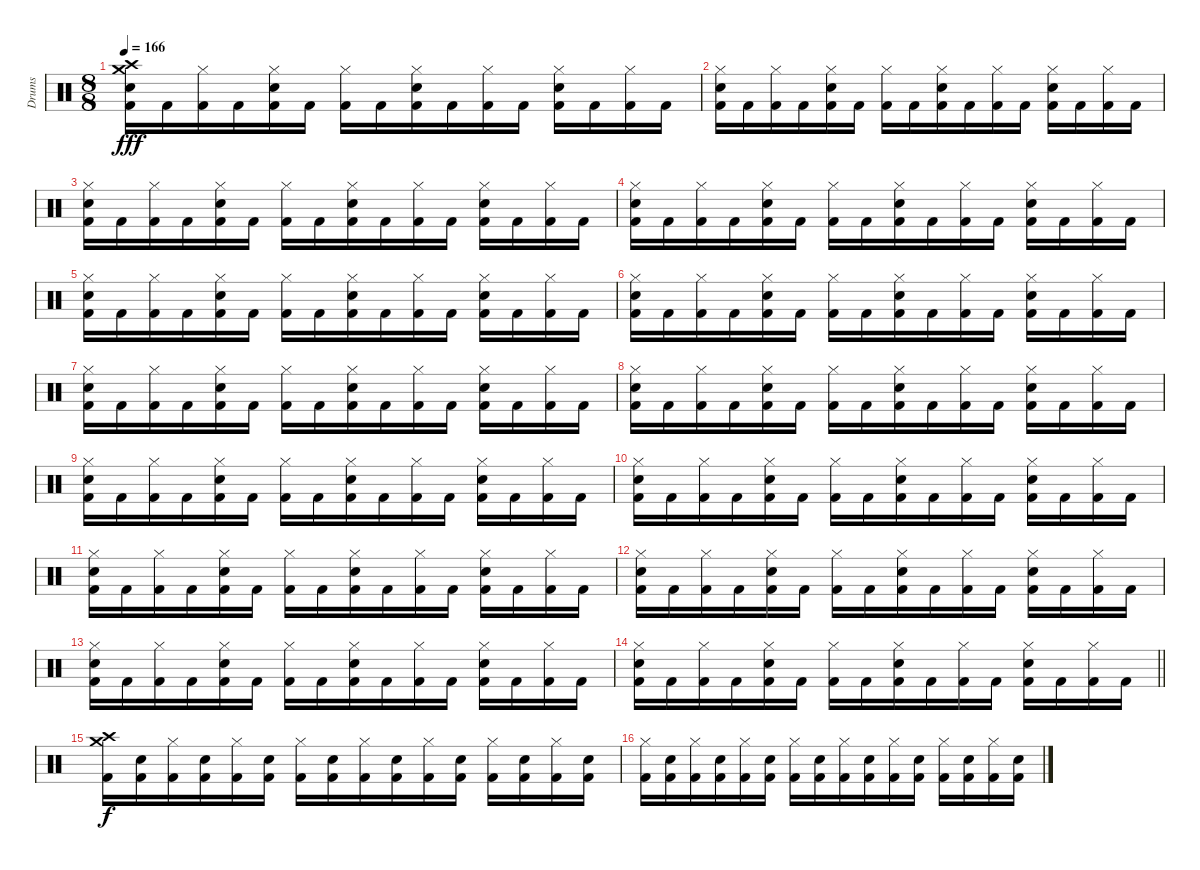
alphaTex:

\track ("Drums" "Drums") {instrument percussion}
\staff {score}
\articulation defaults
\ts (8 8)
\section ("" "")
\tempo 166
\clef neutral
\ks c
("Crash high (hit)" "Crash medium (hit)" "Electric Snare (hit)" "Kick (hit) 2").16{dy fff} "Kick (hit) 2".16 ("Hi-Hat (closed)" "Kick (hit) 2").16 "Kick (hit) 2".16 ("Hi-Hat (closed)" "Electric Snare (hit)" "Kick (hit) 2").16 "Kick (hit) 2".16 ("Hi-Hat (closed)" "Kick (hit) 2").16 "Kick (hit) 2".16 ("Hi-Hat (closed)" "Electric Snare (hit)" "Kick (hit) 2").16 "Kick (hit) 2".16 ("Hi-Hat (closed)" "Kick (hit) 2").16 "Kick (hit) 2".16 ("Hi-Hat (closed)" "Electric Snare (hit)" "Kick (hit) 2").16 "Kick (hit) 2".16 ("Hi-Hat (closed)" "Kick (hit) 2").16 "Kick (hit) 2".16 |
("Hi-Hat (closed)" "Electric Snare (hit)" "Kick (hit) 2").16 "Kick (hit) 2".16 ("Hi-Hat (closed)" "Kick (hit) 2").16 "Kick (hit) 2".16 ("Hi-Hat (closed)" "Electric Snare (hit)" "Kick (hit) 2").16 "Kick (hit) 2".16 ("Hi-Hat (closed)" "Kick (hit) 2").16 "Kick (hit) 2".16 ("Hi-Hat (closed)" "Electric Snare (hit)" "Kick (hit) 2").16 "Kick (hit) 2".16 ("Hi-Hat (closed)" "Kick (hit) 2").16 "Kick (hit) 2".16 ("Hi-Hat (closed)" "Electric Snare (hit)" "Kick (hit) 2").16 "Kick (hit) 2".16 ("Hi-Hat (closed)" "Kick (hit) 2").16 "Kick (hit) 2".16 |
("Hi-Hat (closed)" "Electric Snare (hit)" "Kick (hit) 2").16 "Kick (hit) 2".16 ("Hi-Hat (closed)" "Kick (hit) 2").16 "Kick (hit) 2".16 ("Hi-Hat (closed)" "Electric Snare (hit)" "Kick (hit) 2").16 "Kick (hit) 2".16 ("Hi-Hat (closed)" "Kick (hit) 2").16 "Kick (hit) 2".16 ("Hi-Hat (closed)" "Electric Snare (hit)" "Kick (hit) 2").16 "Kick (hit) 2".16 ("Hi-Hat (closed)" "Kick (hit) 2").16 "Kick (hit) 2".16 ("Hi-Hat (closed)" "Electric Snare (hit)" "Kick (hit) 2").16 "Kick (hit) 2".16 ("Hi-Hat (closed)" "Kick (hit) 2").16 "Kick (hit) 2".16 |
("Hi-Hat (closed)" "Electric Snare (hit)" "Kick (hit) 2").16 "Kick (hit) 2".16 ("Hi-Hat (closed)" "Kick (hit) 2").16 "Kick (hit) 2".16 ("Hi-Hat (closed)" "Electric Snare (hit)" "Kick (hit) 2").16 "Kick (hit) 2".16 ("Hi-Hat (closed)" "Kick (hit) 2").16 "Kick (hit) 2".16 ("Hi-Hat (closed)" "Electric Snare (hit)" "Kick (hit) 2").16 "Kick (hit) 2".16 ("Hi-Hat (closed)" "Kick (hit) 2").16 "Kick (hit) 2".16 ("Hi-Hat (closed)" "Electric Snare (hit)" "Kick (hit) 2").16 "Kick (hit) 2".16 ("Hi-Hat (closed)" "Kick (hit) 2").16 "Kick (hit) 2".16 |
("Hi-Hat (closed)" "Electric Snare (hit)" "Kick (hit) 2").16 "Kick (hit) 2".16 ("Hi-Hat (closed)" "Kick (hit) 2").16 "Kick (hit) 2".16 ("Hi-Hat (closed)" "Electric Snare (hit)" "Kick (hit) 2").16 "Kick (hit) 2".16 ("Hi-Hat (closed)" "Kick (hit) 2").16 "Kick (hit) 2".16 ("Hi-Hat (closed)" "Electric Snare (hit)" "Kick (hit) 2").16 "Kick (hit) 2".16 ("Hi-Hat (closed)" "Kick (hit) 2").16 "Kick (hit) 2".16 ("Hi-Hat (closed)" "Electric Snare (hit)" "Kick (hit) 2").16 "Kick (hit) 2".16 ("Hi-Hat (closed)" "Kick (hit) 2").16 "Kick (hit) 2".16 |
("Hi-Hat (closed)" "Electric Snare (hit)" "Kick (hit) 2").16 "Kick (hit) 2".16 ("Hi-Hat (closed)" "Kick (hit) 2").16 "Kick (hit) 2".16 ("Hi-Hat (closed)" "Electric Snare (hit)" "Kick (hit) 2").16 "Kick (hit) 2".16 ("Hi-Hat (closed)" "Kick (hit) 2").16 "Kick (hit) 2".16 ("Hi-Hat (closed)" "Electric Snare (hit)" "Kick (hit) 2").16 "Kick (hit) 2".16 ("Hi-Hat (closed)" "Kick (hit) 2").16 "Kick (hit) 2".16 ("Hi-Hat (closed)" "Electric Snare (hit)" "Kick (hit) 2").16 "Kick (hit) 2".16 ("Hi-Hat (closed)" "Kick (hit) 2").16 "Kick (hit) 2".16 |
("Hi-Hat (closed)" "Electric Snare (hit)" "Kick (hit) 2").16 "Kick (hit) 2".16 ("Hi-Hat (closed)" "Kick (hit) 2").16 "Kick (hit) 2".16 ("Hi-Hat (closed)" "Electric Snare (hit)" "Kick (hit) 2").16 "Kick (hit) 2".16 ("Hi-Hat (closed)" "Kick (hit) 2").16 "Kick (hit) 2".16 ("Hi-Hat (closed)" "Electric Snare (hit)" "Kick (hit) 2").16 "Kick (hit) 2".16 ("Hi-Hat (closed)" "Kick (hit) 2").16 "Kick (hit) 2".16 ("Hi-Hat (closed)" "Electric Snare (hit)" "Kick (hit) 2").16 "Kick (hit) 2".16 ("Hi-Hat (closed)" "Kick (hit) 2").16 "Kick (hit) 2".16 |
("Hi-Hat (closed)" "Electric Snare (hit)" "Kick (hit) 2").16 "Kick (hit) 2".16 ("Hi-Hat (closed)" "Kick (hit) 2").16 "Kick (hit) 2".16 ("Hi-Hat (closed)" "Electric Snare (hit)" "Kick (hit) 2").16 "Kick (hit) 2".16 ("Hi-Hat (closed)" "Kick (hit) 2").16 "Kick (hit) 2".16 ("Hi-Hat (closed)" "Electric Snare (hit)" "Kick (hit) 2").16 "Kick (hit) 2".16 ("Hi-Hat (closed)" "Kick (hit) 2").16 "Kick (hit) 2".16 ("Hi-Hat (closed)" "Electric Snare (hit)" "Kick (hit) 2").16 "Kick (hit) 2".16 ("Hi-Hat (closed)" "Kick (hit) 2").16 "Kick (hit) 2".16 |
("Hi-Hat (closed)" "Electric Snare (hit)" "Kick (hit) 2").16 "Kick (hit) 2".16 ("Hi-Hat (closed)" "Kick (hit) 2").16 "Kick (hit) 2".16 ("Hi-Hat (closed)" "Electric Snare (hit)" "Kick (hit) 2").16 "Kick (hit) 2".16 ("Hi-Hat (closed)" "Kick (hit) 2").16 "Kick (hit) 2".16 ("Hi-Hat (closed)" "Electric Snare (hit)" "Kick (hit) 2").16 "Kick (hit) 2".16 ("Hi-Hat (closed)" "Kick (hit) 2").16 "Kick (hit) 2".16 ("Hi-Hat (closed)" "Electric Snare (hit)" "Kick (hit) 2").16 "Kick (hit) 2".16 ("Hi-Hat (closed)" "Kick (hit) 2").16 "Kick (hit) 2".16 |
("Hi-Hat (closed)" "Electric Snare (hit)" "Kick (hit) 2").16 "Kick (hit) 2".16 ("Hi-Hat (closed)" "Kick (hit) 2").16 "Kick (hit) 2".16 ("Hi-Hat (closed)" "Electric Snare (hit)" "Kick (hit) 2").16 "Kick (hit) 2".16 ("Hi-Hat (closed)" "Kick (hit) 2").16 "Kick (hit) 2".16 ("Hi-Hat (closed)" "Electric Snare (hit)" "Kick (hit) 2").16 "Kick (hit) 2".16 ("Hi-Hat (closed)" "Kick (hit) 2").16 "Kick (hit) 2".16 ("Hi-Hat (closed)" "Electric Snare (hit)" "Kick (hit) 2").16 "Kick (hit) 2".16 ("Hi-Hat (closed)" "Kick (hit) 2").16 "Kick (hit) 2".16 |
("Hi-Hat (closed)" "Electric Snare (hit)" "Kick (hit) 2").16 "Kick (hit) 2".16 ("Hi-Hat (closed)" "Kick (hit) 2").16 "Kick (hit) 2".16 ("Hi-Hat (closed)" "Electric Snare (hit)" "Kick (hit) 2").16 "Kick (hit) 2".16 ("Hi-Hat (closed)" "Kick (hit) 2").16 "Kick (hit) 2".16 ("Hi-Hat (closed)" "Electric Snare (hit)" "Kick (hit) 2").16 "Kick (hit) 2".16 ("Hi-Hat (closed)" "Kick (hit) 2").16 "Kick (hit) 2".16 ("Hi-Hat (closed)" "Electric Snare (hit)" "Kick (hit) 2").16 "Kick (hit) 2".16 ("Hi-Hat (closed)" "Kick (hit) 2").16 "Kick (hit) 2".16 |
("Hi-Hat (closed)" "Electric Snare (hit)" "Kick (hit) 2").16 "Kick (hit) 2".16 ("Hi-Hat (closed)" "Kick (hit) 2").16 "Kick (hit) 2".16 ("Hi-Hat (closed)" "Electric Snare (hit)" "Kick (hit) 2").16 "Kick (hit) 2".16 ("Hi-Hat (closed)" "Kick (hit) 2").16 "Kick (hit) 2".16 ("Hi-Hat (closed)" "Electric Snare (hit)" "Kick (hit) 2").16 "Kick (hit) 2".16 ("Hi-Hat (closed)" "Kick (hit) 2").16 "Kick (hit) 2".16 ("Hi-Hat (closed)" "Electric Snare (hit)" "Kick (hit) 2").16 "Kick (hit) 2".16 ("Hi-Hat (closed)" "Kick (hit) 2").16 "Kick (hit) 2".16 |
("Hi-Hat (closed)" "Electric Snare (hit)" "Kick (hit) 2").16 "Kick (hit) 2".16 ("Hi-Hat (closed)" "Kick (hit) 2").16 "Kick (hit) 2".16 ("Hi-Hat (closed)" "Electric Snare (hit)" "Kick (hit) 2").16 "Kick (hit) 2".16 ("Hi-Hat (closed)" "Kick (hit) 2").16 "Kick (hit) 2".16 ("Hi-Hat (closed)" "Electric Snare (hit)" "Kick (hit) 2").16 "Kick (hit) 2".16 ("Hi-Hat (closed)" "Kick (hit) 2").16 "Kick (hit) 2".16 ("Hi-Hat (closed)" "Electric Snare (hit)" "Kick (hit) 2").16 "Kick (hit) 2".16 ("Hi-Hat (closed)" "Kick (hit) 2").16 "Kick (hit) 2".16 |
\barLineRight lightlight
("Hi-Hat (closed)" "Electric Snare (hit)" "Kick (hit) 2").16 "Kick (hit) 2".16 ("Hi-Hat (closed)" "Kick (hit) 2").16 "Kick (hit) 2".16 ("Hi-Hat (closed)" "Electric Snare (hit)" "Kick (hit) 2").16 "Kick (hit) 2".16 ("Hi-Hat (closed)" "Kick (hit) 2").16 "Kick (hit) 2".16 ("Hi-Hat (closed)" "Electric Snare (hit)" "Kick (hit) 2").16 "Kick (hit) 2".16 ("Hi-Hat (closed)" "Kick (hit) 2").16 "Kick (hit) 2".16 ("Hi-Hat (closed)" "Electric Snare (hit)" "Kick (hit) 2").16 "Kick (hit) 2".16 ("Hi-Hat (closed)" "Kick (hit) 2").16 "Kick (hit) 2".16 |
\section ("" "")
("Crash high (hit)" "Crash medium (hit)" "Kick (hit) 2").16{dy f} ("Electric Snare (hit)" "Kick (hit) 2").16 ("Hi-Hat (closed)" "Kick (hit) 2").16 ("Electric Snare (hit)" "Kick (hit) 2").16 ("Hi-Hat (closed)" "Kick (hit) 2").16 ("Electric Snare (hit)" "Kick (hit) 2").16 ("Hi-Hat (closed)" "Kick (hit) 2").16 ("Electric Snare (hit)" "Kick (hit) 2").16 ("Hi-Hat (closed)" "Kick (hit) 2").16 ("Electric Snare (hit)" "Kick (hit) 2").16 ("Hi-Hat (closed)" "Kick (hit) 2").16 ("Electric Snare (hit)" "Kick (hit) 2").16 ("Hi-Hat (closed)" "Kick (hit) 2").16 ("Electric Snare (hit)" "Kick (hit) 2").16 ("Hi-Hat (closed)" "Kick (hit) 2").16 ("Electric Snare (hit)" "Kick (hit) 2").16 |
("Hi-Hat (closed)" "Kick (hit) 2").16 ("Electric Snare (hit)" "Kick (hit) 2").16 ("Hi-Hat (closed)" "Kick (hit) 2").16 ("Electric Snare (hit)" "Kick (hit) 2").16 ("Hi-Hat (closed)" "Kick (hit) 2").16 ("Electric Snare (hit)" "Kick (hit) 2").16 ("Hi-Hat (closed)" "Kick (hit) 2").16 ("Electric Snare (hit)" "Kick (hit) 2").16 ("Hi-Hat (closed)" "Kick (hit) 2").16 ("Electric Snare (hit)" "Kick (hit) 2").16 ("Hi-Hat (closed)" "Kick (hit) 2").16 ("Electric Snare (hit)" "Kick (hit) 2").16 ("Hi-Hat (closed)" "Kick (hit) 2").16 ("Electric Snare (hit)" "Kick (hit) 2").16 ("Hi-Hat (closed)" "Kick (hit) 2").16 ("Electric Snare (hit)" "Kick (hit) 2").16
